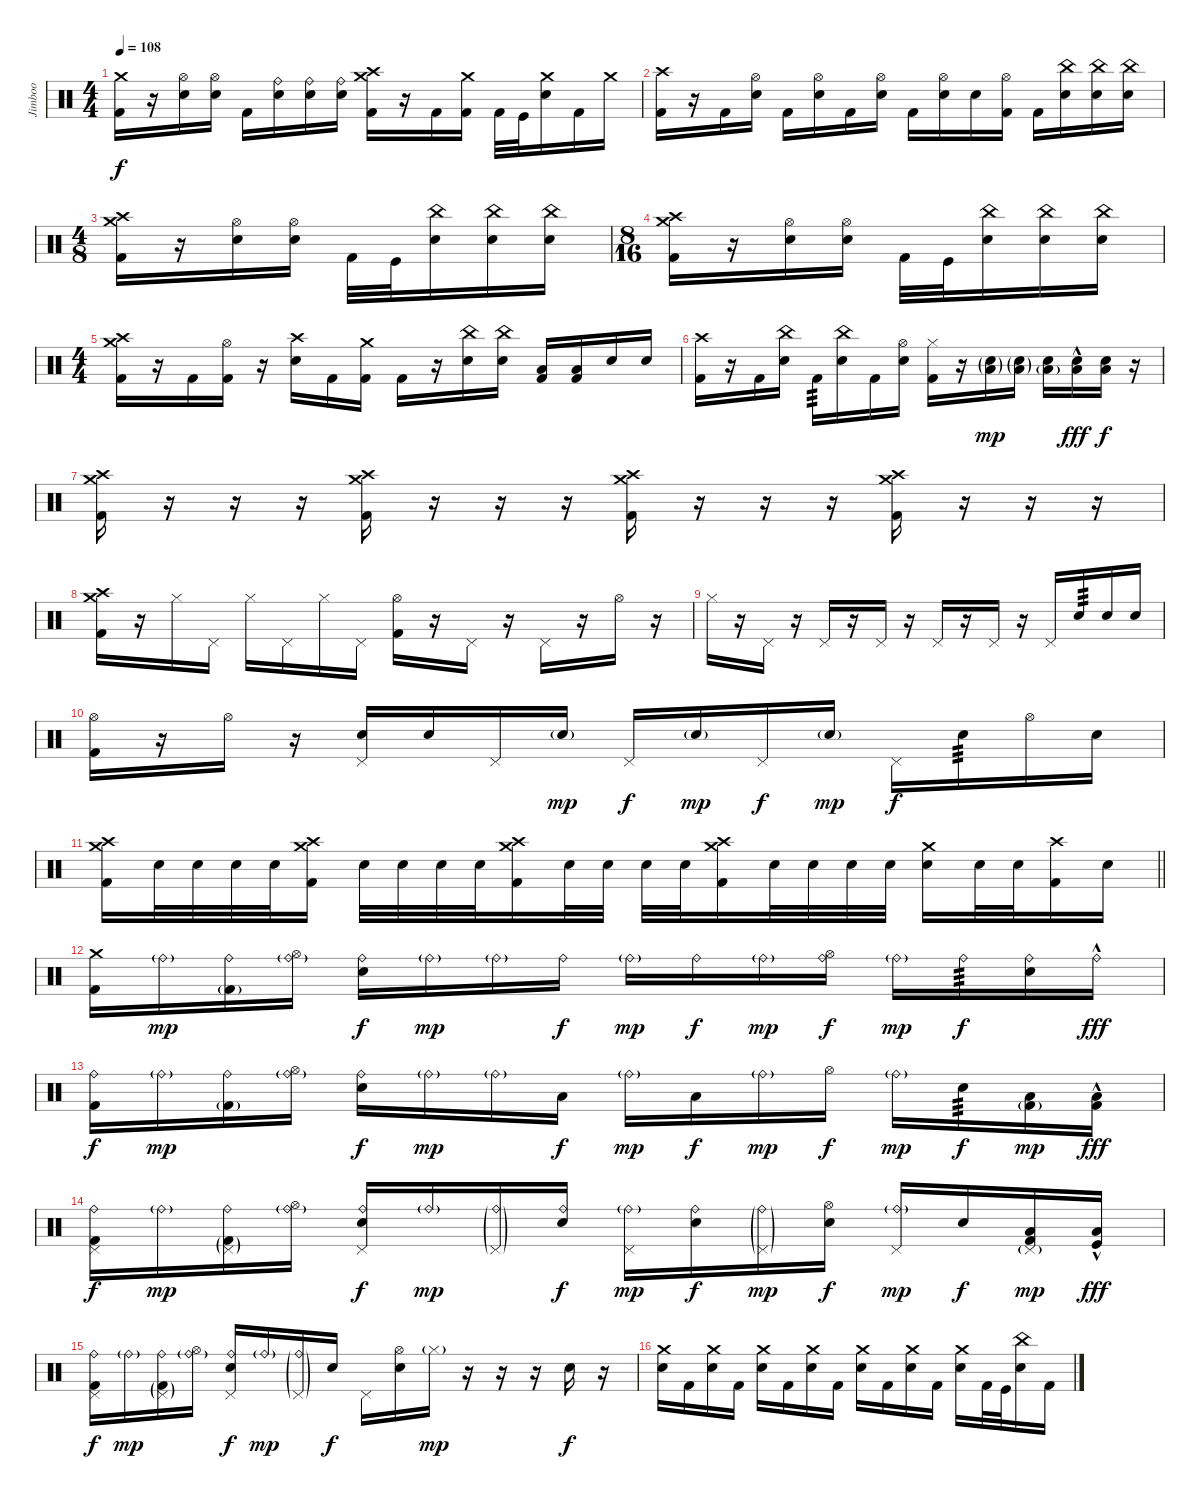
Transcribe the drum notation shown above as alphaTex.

\track ("Jimboo" "Jimboo") {instrument percussion}
\staff
\articulation defaults
\ts (4 4)
\tempo 108
\clef neutral
\ks c
("Kick (hit) 2" "Crash medium (hit)").16{dy f} r.16 ("Electric Snare (hit)" "Hi-Hat (open)").16 ("Electric Snare (hit)" "Hi-Hat (open)").16 "Kick (hit) 2".16 ("Electric Snare (hit)" "Ride (bell)").16 ("Electric Snare (hit)" "Ride (bell)").16 ("Electric Snare (hit)" "Ride (bell)").16 ("Kick (hit) 2" "Crash medium (hit)" "Crash high (hit)").16 r.16 "Kick (hit) 2".16 ("Kick (hit) 2" "Crash medium (hit)").16 "Kick (hit) 2".32 "Kick (hit)".32 ("Electric Snare (hit)" "Crash medium (hit)").16 "Kick (hit) 2".16 "Crash medium (hit)".16 |
("Kick (hit) 2" "Crash high (hit)").16 r.16 "Kick (hit) 2".16 ("Electric Snare (hit)" "Hi-Hat (open)").16 "Kick (hit) 2".16 ("Electric Snare (hit)" "Hi-Hat (open)").16 "Kick (hit) 2".16 ("Electric Snare (hit)" "Hi-Hat (open)").16 "Kick (hit) 2".16 ("Electric Snare (hit)" "Hi-Hat (open)").16 "Electric Snare (hit)".16 ("Kick (hit) 2" "Hi-Hat (open)").16 "Kick (hit) 2".16 ("Electric Snare (hit)" "China (hit)").16 ("Electric Snare (hit)" "China (hit)").16 ("Electric Snare (hit)" "China (hit)").16 |
\ts (4 8)
("Kick (hit) 2" "Crash medium (hit)" "Crash high (hit)").16 r.16 ("Electric Snare (hit)" "Hi-Hat (open)").16 ("Electric Snare (hit)" "Hi-Hat (open)").16 "Kick (hit) 2".32 "Kick (hit)".32 ("Electric Snare (hit)" "China (hit)").16 ("Electric Snare (hit)" "China (hit)").16 ("Electric Snare (hit)" "China (hit)").16 |
\ts (8 16)
("Kick (hit) 2" "Crash medium (hit)" "Crash high (hit)").16 r.16 ("Electric Snare (hit)" "Hi-Hat (open)").16 ("Electric Snare (hit)" "Hi-Hat (open)").16 "Kick (hit) 2".32 "Kick (hit)".32 ("Electric Snare (hit)" "China (hit)").16 ("Electric Snare (hit)" "China (hit)").16 ("Electric Snare (hit)" "China (hit)").16 |
\ts (4 4)
("Kick (hit) 2" "Crash medium (hit)" "Crash high (hit)").16 r.16 "Kick (hit) 2".16 ("Kick (hit) 2" "Hi-Hat (open)").16 r.16 ("Electric Snare (hit)" "Crash high (hit)").16 "Kick (hit) 2".16 ("Kick (hit) 2" "Crash medium (hit)").16 "Kick (hit) 2".16 r.16 ("Electric Snare (hit)" "China (hit)").16 ("Electric Snare (hit)" "China (hit)").16 ("Kick (hit) 2" "Low Tom (hit)").16 ("Kick (hit) 2" "Low Floor Tom (hit)").16 "Electric Snare (hit)".16 "Electric Snare (hit)".16 |
("Kick (hit) 2" "Crash high (hit)").16 r.16 "Kick (hit) 2".16 ("Electric Snare (hit)" "China (hit)").16 "Kick (hit) 2".16{tp 3} ("Electric Snare (hit)" "China (hit)").16 "Kick (hit) 2".16 ("Electric Snare (hit)" "Hi-Hat (open)").16 ("Kick (hit) 2" "Hi-Hat (closed)").16 r.16 ("Electric Snare (hit)"{g} "Low Floor Tom (hit)"{g}).16{dy mp} ("Electric Snare (hit)"{g} "Low Floor Tom (hit)"{g}).16 ("Electric Snare (hit)" "Low Floor Tom (hit)"{g}).16 ("Electric Snare (hit)"{hac} "Low Floor Tom (hit)").16{dy fff} ("Electric Snare (hit)" "Low Floor Tom (hit)").16{dy f} r.16 |
("Kick (hit) 2" "Crash medium (hit)" "Crash high (hit)").16 r.16 r.16 r.16 ("Kick (hit) 2" "Crash medium (hit)" "Crash high (hit)").16 r.16 r.16 r.16 ("Kick (hit) 2" "Crash medium (hit)" "Crash high (hit)").16 r.16 r.16 r.16 ("Kick (hit) 2" "Crash medium (hit)" "Crash high (hit)").16 r.16 r.16 r.16 |
("Kick (hit) 2" "Crash medium (hit)" "Crash high (hit)").16 r.16 "Hi-Hat (closed)".16 "Pedal Hi-Hat (hit)".16 "Hi-Hat (closed)".16 "Pedal Hi-Hat (hit)".16 "Hi-Hat (closed)".16 "Pedal Hi-Hat (hit)".16 ("Hi-Hat (open)" "Kick (hit) 2").16 r.16 "Pedal Hi-Hat (hit)".16 r.16 "Pedal Hi-Hat (hit)".16 r.16 "Hi-Hat (open)".16 r.16 |
"Hi-Hat (closed)".16 r.16 "Pedal Hi-Hat (hit)".16 r.16 "Pedal Hi-Hat (hit)".16 r.16 "Pedal Hi-Hat (hit)".16 r.16 "Pedal Hi-Hat (hit)".16 r.16 "Pedal Hi-Hat (hit)".16 r.16 "Pedal Hi-Hat (hit)".16 "Electric Snare (hit)".16{tp 3} "Electric Snare (hit)".16 "Electric Snare (hit)".16 |
("Kick (hit) 2" "Hi-Hat (open)").16 r.16 "Hi-Hat (open)".16 r.16 ("Pedal Hi-Hat (hit)" "Electric Snare (hit)").16 "Electric Snare (hit)".16 "Pedal Hi-Hat (hit)".16 "Electric Snare (hit)"{g}.16{dy mp} "Pedal Hi-Hat (hit)".16{dy f} "Electric Snare (hit)"{g}.16{dy mp} "Pedal Hi-Hat (hit)".16{dy f} "Electric Snare (hit)"{g}.16{dy mp} "Pedal Hi-Hat (hit)".16{dy f} "Electric Snare (hit)".16{tp 3} "Hi-Hat (open)".16 "Electric Snare (hit)".16 |
\barLineRight lightlight
("Kick (hit) 2" "Crash medium (hit)" "Crash high (hit)").16 "Electric Snare (hit)".32 "Electric Snare (hit)".32 "Electric Snare (hit)".32 "Electric Snare (hit)".32 ("Kick (hit) 2" "Crash medium (hit)" "Crash high (hit)").16 "Electric Snare (hit)".32 "Electric Snare (hit)".32 "Electric Snare (hit)".32 "Electric Snare (hit)".32 ("Kick (hit) 2" "Crash medium (hit)" "Crash high (hit)").16 "Electric Snare (hit)".32 "Electric Snare (hit)".32 "Electric Snare (hit)".32 "Electric Snare (hit)".32 ("Kick (hit) 2" "Crash medium (hit)" "Crash high (hit)").16 "Electric Snare (hit)".32 "Electric Snare (hit)".32 "Electric Snare (hit)".32 "Electric Snare (hit)".32 ("Electric Snare (hit)" "Crash medium (hit)").16 "Electric Snare (hit)".32 "Electric Snare (hit)".32 ("Kick (hit) 2" "Crash high (hit)").16 "Electric Snare (hit)".16 |
("Crash medium (hit)" "Kick (hit) 2").16 "Ride (bell)"{g}.16{dy mp} ("Ride (bell)" "Kick (hit) 2"{g}).16 ("Ride (bell)"{g} "Hi-Hat (open)").16 ("Ride (bell)" "Electric Snare (hit)").16{dy f} "Ride (bell)"{g}.16{dy mp} "Ride (bell)"{g}.16 "Ride (bell)".16{dy f} "Ride (bell)"{g}.16{dy mp} "Ride (bell)".16{dy f} "Ride (bell)"{g}.16{dy mp} ("Ride (bell)" "Hi-Hat (open)").16{dy f} "Ride (bell)"{g}.16{dy mp} "Ride (bell)".16{tp 3 dy f} ("Ride (bell)" "Electric Snare (hit)").16 "Ride (bell)"{hac}.16{dy fff} |
("Ride (bell)" "Kick (hit) 2").16{dy f} "Ride (bell)"{g}.16{dy mp} ("Ride (bell)" "Kick (hit) 2"{g}).16 ("Ride (bell)"{g} "Hi-Hat (open)").16 ("Ride (bell)" "Electric Snare (hit)").16{dy f} "Ride (bell)"{g}.16{dy mp} "Ride (bell)"{g}.16 "Low Tom (hit)".16{dy f} "Ride (bell)"{g}.16{dy mp} "Low Floor Tom (hit)".16{dy f} "Ride (bell)"{g}.16{dy mp} "Hi-Hat (open)".16{dy f} "Ride (bell)"{g}.16{dy mp} "Electric Snare (hit)".16{tp 3 dy f} ("Low Tom (hit)" "Kick (hit) 2"{g}).16{dy mp} ("Low Floor Tom (hit)"{hac} "Kick (hit) 2").16{dy fff} |
("Ride (bell)" "Kick (hit) 2" "Pedal Hi-Hat (hit)").16{dy f} "Ride (bell)"{g}.16{dy mp} ("Ride (bell)" "Kick (hit) 2"{g} "Pedal Hi-Hat (hit)"{g}).16 ("Ride (bell)"{g} "Hi-Hat (open)").16 ("Ride (bell)" "Electric Snare (hit)" "Pedal Hi-Hat (hit)").16{dy f} "Ride (bell)"{g}.16{dy mp} ("Ride (bell)"{g} "Pedal Hi-Hat (hit)"{g}).16 ("Ride (bell)" "Electric Snare (hit)").16{dy f} ("Ride (bell)"{g} "Pedal Hi-Hat (hit)").16{dy mp} ("Ride (bell)" "Electric Snare (hit)").16{dy f} ("Ride (bell)"{g} "Pedal Hi-Hat (hit)"{g}).16{dy mp} ("Electric Snare (hit)" "Hi-Hat (open)").16{dy f} ("Ride (bell)"{g} "Pedal Hi-Hat (hit)").16{dy mp} "Electric Snare (hit)".16{dy f} ("Low Tom (hit)" "Kick (hit) 2" "Pedal Hi-Hat (hit)"{g}).16{dy mp} ("Low Floor Tom (hit)"{hac} "Kick (hit)").16{dy fff} |
("Ride (bell)" "Kick (hit) 2" "Pedal Hi-Hat (hit)").16{dy f} "Ride (bell)"{g}.16{dy mp} ("Ride (bell)" "Kick (hit) 2"{g} "Pedal Hi-Hat (hit)"{g}).16 ("Ride (bell)"{g} "Hi-Hat (open)").16 ("Ride (bell)" "Electric Snare (hit)" "Pedal Hi-Hat (hit)").16{dy f} "Ride (bell)"{g}.16{dy mp} ("Ride (bell)"{g} "Pedal Hi-Hat (hit)"{g}).16 "Electric Snare (hit)".16{dy f} "Pedal Hi-Hat (hit)".16 ("Electric Snare (hit)" "Hi-Hat (open)").16 "Hi-Hat (closed)"{g}.16{dy mp} r.16 r.16 r.16 "Electric Snare (hit)".16{dy f} r.16 |
("Electric Snare (hit)" "Crash medium (hit)").16 "Kick (hit) 2".16 ("Electric Snare (hit)" "Crash medium (hit)").16 "Kick (hit) 2".16 ("Electric Snare (hit)" "Crash medium (hit)").16 "Kick (hit) 2".16 ("Electric Snare (hit)" "Crash medium (hit)").16 "Kick (hit) 2".16 ("Electric Snare (hit)" "Crash medium (hit)").16 "Kick (hit) 2".16 ("Electric Snare (hit)" "Crash medium (hit)").16 "Kick (hit) 2".16 ("Electric Snare (hit)" "Crash medium (hit)").16 "Kick (hit) 2".32 "Kick (hit)".32 ("Electric Snare (hit)" "China (hit)").16 "Kick (hit) 2".16
